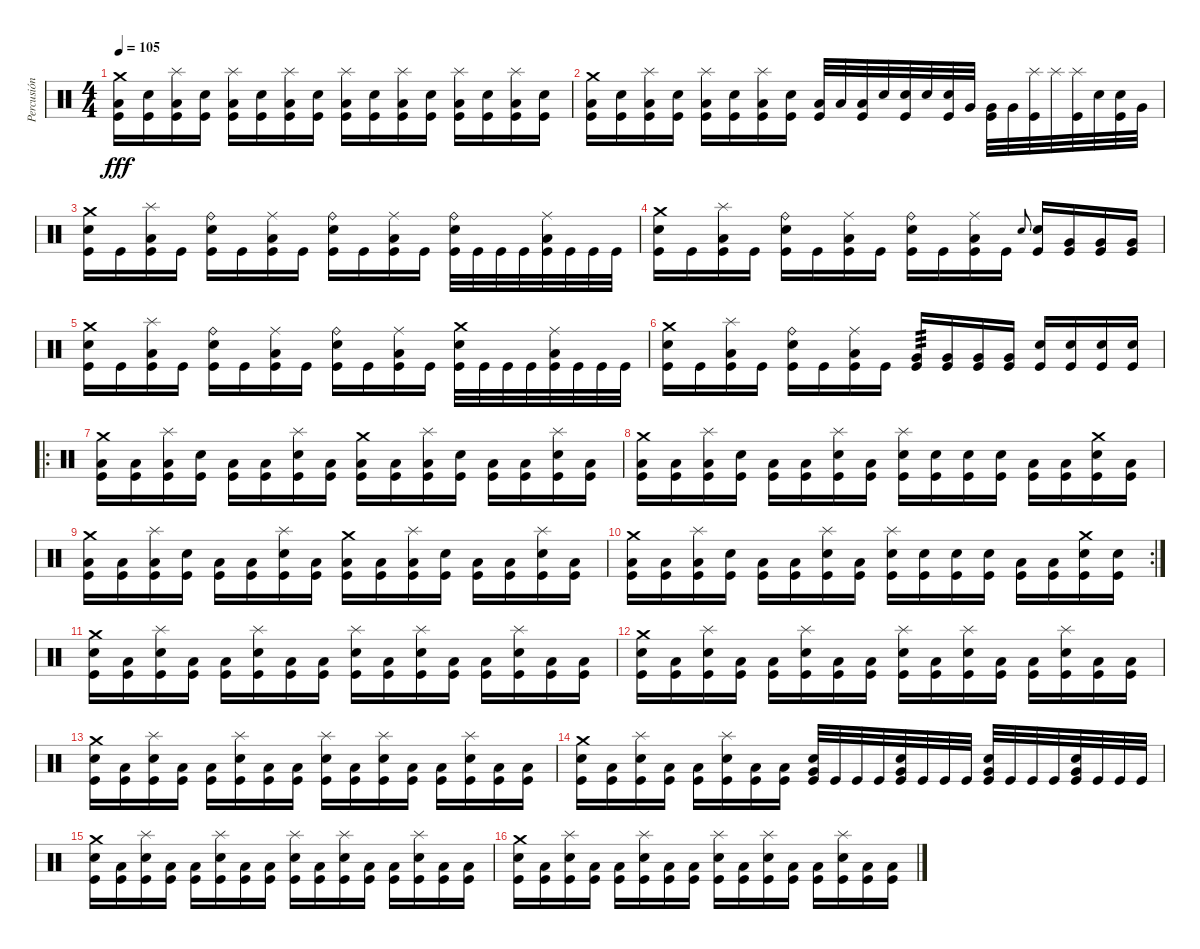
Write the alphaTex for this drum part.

\track ("Percusión" "Percusión") {instrument percussion}
\staff {score}
\articulation defaults
\ts (4 4)
\tempo 105
\clef neutral
\ks c
("Crash medium (hit)" "Low Floor Tom (hit)" "Kick (hit)").16{dy fff} ("Snare (hit) 2" "Kick (hit)").16 ("Splash (hit)" "Low Floor Tom (hit)" "Kick (hit)").16 ("Snare (hit) 2" "Kick (hit)").16 ("Splash (hit)" "Low Floor Tom (hit)" "Kick (hit)").16 ("Snare (hit) 2" "Kick (hit)").16 ("Splash (hit)" "Low Floor Tom (hit)" "Kick (hit)").16 ("Snare (hit) 2" "Kick (hit)").16 ("Splash (hit)" "Low Floor Tom (hit)" "Kick (hit)").16 ("Snare (hit) 2" "Kick (hit)").16 ("Splash (hit)" "Low Floor Tom (hit)" "Kick (hit)").16 ("Snare (hit) 2" "Kick (hit)").16 ("Splash (hit)" "Low Floor Tom (hit)" "Kick (hit)").16 ("Snare (hit) 2" "Kick (hit)").16 ("Splash (hit)" "Low Floor Tom (hit)" "Kick (hit)").16 ("Snare (hit) 2" "Kick (hit)").16 |
("Crash medium (hit)" "Low Floor Tom (hit)" "Kick (hit)").16 ("Snare (hit) 2" "Kick (hit)").16 ("Splash (hit)" "Low Floor Tom (hit)" "Kick (hit)").16 ("Snare (hit) 2" "Kick (hit)").16 ("Splash (hit)" "Low Floor Tom (hit)" "Kick (hit)").16 ("Snare (hit) 2" "Kick (hit)").16 ("Splash (hit)" "Low Floor Tom (hit)" "Kick (hit)").16 ("Snare (hit) 2" "Kick (hit)").16 ("Low Floor Tom (hit)" "Kick (hit)").32 "Low Floor Tom (hit)".32 ("Low Floor Tom (hit)" "Kick (hit)").32 "Snare (hit) 2".32 ("Snare (hit) 2" "Kick (hit)").32 "Snare (hit) 2".32 ("Snare (hit) 2" "Kick (hit)").32 "Very Low Tom (hit)".32 ("Very Low Tom (hit)" "Kick (hit)").32 "Very Low Tom (hit)".32 ("Splash (hit)" "Kick (hit)").32 "Splash (hit)".32 ("Splash (hit)" "Kick (hit)").32 "Snare (hit) 2".32 ("Snare (hit) 2" "Kick (hit)").32 "Very Low Tom (hit)".32 |
("Crash medium (hit)" "Snare (hit) 2" "Kick (hit)").16 "Kick (hit)".16 ("Splash (hit)" "Low Floor Tom (hit)" "Kick (hit)").16 "Kick (hit)".16 ("Ride (bell)" "Snare (hit) 2" "Kick (hit)").16 "Kick (hit)".16 ("Ride (middle)" "Low Floor Tom (hit)" "Kick (hit)").16 "Kick (hit)".16 ("Ride (bell)" "Snare (hit) 2" "Kick (hit)").16 "Kick (hit)".16 ("Ride (middle)" "Low Floor Tom (hit)" "Kick (hit)").16 "Kick (hit)".16 ("Ride (bell)" "Snare (hit) 2" "Kick (hit)").32 "Kick (hit)".32 "Kick (hit)".32 "Kick (hit)".32 ("Ride (middle)" "Low Floor Tom (hit)" "Kick (hit)").32 "Kick (hit)".32 "Kick (hit)".32 "Kick (hit)".32 |
("Crash medium (hit)" "Snare (hit) 2" "Kick (hit)").16 "Kick (hit)".16 ("Splash (hit)" "Low Floor Tom (hit)" "Kick (hit)").16 "Kick (hit)".16 ("Ride (bell)" "Snare (hit) 2" "Kick (hit)").16 "Kick (hit)".16 ("Ride (middle)" "Low Floor Tom (hit)" "Kick (hit)").16 "Kick (hit)".16 ("Ride (bell)" "Snare (hit) 2" "Kick (hit)").16 "Kick (hit)".16 ("Ride (middle)" "Low Floor Tom (hit)" "Kick (hit)").16 "Kick (hit)".16 "Snare (hit) 2".8{gr onbeat} ("Snare (hit) 2" "Kick (hit)").16 ("Very Low Tom (hit)" "Kick (hit)").16 ("Very Low Tom (hit)" "Kick (hit)").16 ("Very Low Tom (hit)" "Kick (hit)").16 |
("Crash medium (hit)" "Snare (hit) 2" "Kick (hit)").16 "Kick (hit)".16 ("Splash (hit)" "Low Floor Tom (hit)" "Kick (hit)").16 "Kick (hit)".16 ("Ride (bell)" "Snare (hit) 2" "Kick (hit)").16 "Kick (hit)".16 ("Ride (middle)" "Low Floor Tom (hit)" "Kick (hit)").16 "Kick (hit)".16 ("Ride (bell)" "Snare (hit) 2" "Kick (hit)").16 "Kick (hit)".16 ("Ride (middle)" "Low Floor Tom (hit)" "Kick (hit)").16 "Kick (hit)".16 ("Crash medium (hit)" "Snare (hit) 2" "Kick (hit)").32 "Kick (hit)".32 "Kick (hit)".32 "Kick (hit)".32 ("Ride (middle)" "Low Floor Tom (hit)" "Kick (hit)").32 "Kick (hit)".32 "Kick (hit)".32 "Kick (hit)".32 |
("Crash medium (hit)" "Snare (hit) 2" "Kick (hit)").16 "Kick (hit)".16 ("Splash (hit)" "Low Floor Tom (hit)" "Kick (hit)").16 "Kick (hit)".16 ("Ride (bell)" "Snare (hit) 2" "Kick (hit)").16 "Kick (hit)".16 ("Ride (middle)" "Low Floor Tom (hit)" "Kick (hit)").16 "Kick (hit)".16 ("Very Low Tom (hit)" "Kick (hit)").16{tp 3} ("Very Low Tom (hit)" "Kick (hit)").16 ("Very Low Tom (hit)" "Kick (hit)").16 ("Very Low Tom (hit)" "Kick (hit)").16 ("Snare (hit) 2" "Kick (hit)").16 ("Snare (hit) 2" "Kick (hit)").16 ("Snare (hit) 2" "Kick (hit)").16 ("Snare (hit) 2" "Kick (hit)").16 |
\ro
("Crash medium (hit)" "Low Floor Tom (hit)" "Kick (hit)").16 ("Low Floor Tom (hit)" "Kick (hit)").16 ("Splash (hit)" "Low Floor Tom (hit)" "Kick (hit)").16 ("Snare (hit) 2" "Kick (hit)").16 ("Low Floor Tom (hit)" "Kick (hit)").16 ("Low Floor Tom (hit)" "Kick (hit)").16 ("Splash (hit)" "Snare (hit) 2" "Kick (hit)").16 ("Low Floor Tom (hit)" "Kick (hit)").16 ("Crash medium (hit)" "Low Floor Tom (hit)" "Kick (hit)").16 ("Low Floor Tom (hit)" "Kick (hit)").16 ("Splash (hit)" "Low Floor Tom (hit)" "Kick (hit)").16 ("Snare (hit) 2" "Kick (hit)").16 ("Low Floor Tom (hit)" "Kick (hit)").16 ("Low Floor Tom (hit)" "Kick (hit)").16 ("Splash (hit)" "Snare (hit) 2" "Kick (hit)").16 ("Low Floor Tom (hit)" "Kick (hit)").16 |
("Crash medium (hit)" "Low Floor Tom (hit)" "Kick (hit)").16 ("Low Floor Tom (hit)" "Kick (hit)").16 ("Splash (hit)" "Low Floor Tom (hit)" "Kick (hit)").16 ("Snare (hit) 2" "Kick (hit)").16 ("Low Floor Tom (hit)" "Kick (hit)").16 ("Low Floor Tom (hit)" "Kick (hit)").16 ("Splash (hit)" "Snare (hit) 2" "Kick (hit)").16 ("Low Floor Tom (hit)" "Kick (hit)").16 ("Splash (hit)" "Snare (hit) 2" "Kick (hit)").16 ("Snare (hit) 2" "Kick (hit)").16 ("Snare (hit) 2" "Kick (hit)").16 ("Snare (hit) 2" "Kick (hit)").16 ("Low Floor Tom (hit)" "Kick (hit)").16 ("Low Floor Tom (hit)" "Kick (hit)").16 ("Crash medium (hit)" "Snare (hit) 2" "Kick (hit)").16 ("Low Floor Tom (hit)" "Kick (hit)").16 |
("Crash medium (hit)" "Low Floor Tom (hit)" "Kick (hit)").16 ("Low Floor Tom (hit)" "Kick (hit)").16 ("Splash (hit)" "Low Floor Tom (hit)" "Kick (hit)").16 ("Snare (hit) 2" "Kick (hit)").16 ("Low Floor Tom (hit)" "Kick (hit)").16 ("Low Floor Tom (hit)" "Kick (hit)").16 ("Splash (hit)" "Snare (hit) 2" "Kick (hit)").16 ("Low Floor Tom (hit)" "Kick (hit)").16 ("Crash medium (hit)" "Low Floor Tom (hit)" "Kick (hit)").16 ("Low Floor Tom (hit)" "Kick (hit)").16 ("Splash (hit)" "Low Floor Tom (hit)" "Kick (hit)").16 ("Snare (hit) 2" "Kick (hit)").16 ("Low Floor Tom (hit)" "Kick (hit)").16 ("Low Floor Tom (hit)" "Kick (hit)").16 ("Splash (hit)" "Snare (hit) 2" "Kick (hit)").16 ("Low Floor Tom (hit)" "Kick (hit)").16 |
\rc 2
("Crash medium (hit)" "Low Floor Tom (hit)" "Kick (hit)").16 ("Low Floor Tom (hit)" "Kick (hit)").16 ("Splash (hit)" "Low Floor Tom (hit)" "Kick (hit)").16 ("Snare (hit) 2" "Kick (hit)").16 ("Low Floor Tom (hit)" "Kick (hit)").16 ("Low Floor Tom (hit)" "Kick (hit)").16 ("Splash (hit)" "Snare (hit) 2" "Kick (hit)").16 ("Low Floor Tom (hit)" "Kick (hit)").16 ("Splash (hit)" "Snare (hit) 2" "Kick (hit)").16 ("Snare (hit) 2" "Kick (hit)").16 ("Snare (hit) 2" "Kick (hit)").16 ("Snare (hit) 2" "Kick (hit)").16 ("Low Floor Tom (hit)" "Kick (hit)").16 ("Low Floor Tom (hit)" "Kick (hit)").16 ("Crash medium (hit)" "Snare (hit) 2" "Kick (hit)").16 ("Snare (hit) 2" "Kick (hit)").16 |
("Crash medium (hit)" "Snare (hit) 2" "Kick (hit)").16 ("Low Floor Tom (hit)" "Kick (hit)").16 ("Splash (hit)" "Snare (hit) 2" "Kick (hit)").16 ("Low Floor Tom (hit)" "Kick (hit)").16 ("Low Floor Tom (hit)" "Kick (hit)").16 ("Splash (hit)" "Snare (hit) 2" "Kick (hit)").16 ("Low Floor Tom (hit)" "Kick (hit)").16 ("Low Floor Tom (hit)" "Kick (hit)").16 ("Splash (hit)" "Snare (hit) 2" "Kick (hit)").16 ("Low Floor Tom (hit)" "Kick (hit)").16 ("Splash (hit)" "Snare (hit) 2" "Kick (hit)").16 ("Low Floor Tom (hit)" "Kick (hit)").16 ("Low Floor Tom (hit)" "Kick (hit)").16 ("Splash (hit)" "Snare (hit) 2" "Kick (hit)").16 ("Low Floor Tom (hit)" "Kick (hit)").16 ("Low Floor Tom (hit)" "Kick (hit)").16 |
("Crash medium (hit)" "Snare (hit) 2" "Kick (hit)").16 ("Low Floor Tom (hit)" "Kick (hit)").16 ("Splash (hit)" "Snare (hit) 2" "Kick (hit)").16 ("Low Floor Tom (hit)" "Kick (hit)").16 ("Low Floor Tom (hit)" "Kick (hit)").16 ("Splash (hit)" "Snare (hit) 2" "Kick (hit)").16 ("Low Floor Tom (hit)" "Kick (hit)").16 ("Low Floor Tom (hit)" "Kick (hit)").16 ("Splash (hit)" "Snare (hit) 2" "Kick (hit)").16 ("Low Floor Tom (hit)" "Kick (hit)").16 ("Splash (hit)" "Snare (hit) 2" "Kick (hit)").16 ("Low Floor Tom (hit)" "Kick (hit)").16 ("Low Floor Tom (hit)" "Kick (hit)").16 ("Splash (hit)" "Snare (hit) 2" "Kick (hit)").16 ("Low Floor Tom (hit)" "Kick (hit)").16 ("Low Floor Tom (hit)" "Kick (hit)").16 |
("Crash medium (hit)" "Snare (hit) 2" "Kick (hit)").16 ("Low Floor Tom (hit)" "Kick (hit)").16 ("Splash (hit)" "Snare (hit) 2" "Kick (hit)").16 ("Low Floor Tom (hit)" "Kick (hit)").16 ("Low Floor Tom (hit)" "Kick (hit)").16 ("Splash (hit)" "Snare (hit) 2" "Kick (hit)").16 ("Low Floor Tom (hit)" "Kick (hit)").16 ("Low Floor Tom (hit)" "Kick (hit)").16 ("Splash (hit)" "Snare (hit) 2" "Kick (hit)").16 ("Low Floor Tom (hit)" "Kick (hit)").16 ("Splash (hit)" "Snare (hit) 2" "Kick (hit)").16 ("Low Floor Tom (hit)" "Kick (hit)").16 ("Low Floor Tom (hit)" "Kick (hit)").16 ("Splash (hit)" "Snare (hit) 2" "Kick (hit)").16 ("Low Floor Tom (hit)" "Kick (hit)").16 ("Low Floor Tom (hit)" "Kick (hit)").16 |
("Crash medium (hit)" "Snare (hit) 2" "Kick (hit)").16 ("Low Floor Tom (hit)" "Kick (hit)").16 ("Splash (hit)" "Snare (hit) 2" "Kick (hit)").16 ("Low Floor Tom (hit)" "Kick (hit)").16 ("Low Floor Tom (hit)" "Kick (hit)").16 ("Splash (hit)" "Snare (hit) 2" "Kick (hit)").16 ("Low Floor Tom (hit)" "Kick (hit)").16 ("Low Floor Tom (hit)" "Kick (hit)").16 ("Snare (hit) 2" "Very Low Tom (hit)" "Kick (hit)").32 "Kick (hit)".32 "Kick (hit)".32 "Kick (hit)".32 ("Snare (hit) 2" "Very Low Tom (hit)" "Kick (hit)").32 "Kick (hit)".32 "Kick (hit)".32 "Kick (hit)".32 ("Snare (hit) 2" "Very Low Tom (hit)" "Kick (hit)").32 "Kick (hit)".32 "Kick (hit)".32 "Kick (hit)".32 ("Snare (hit) 2" "Very Low Tom (hit)" "Kick (hit)").32 "Kick (hit)".32 "Kick (hit)".32 "Kick (hit)".32 |
("Crash medium (hit)" "Snare (hit) 2" "Kick (hit)").16 ("Low Floor Tom (hit)" "Kick (hit)").16 ("Splash (hit)" "Snare (hit) 2" "Kick (hit)").16 ("Low Floor Tom (hit)" "Kick (hit)").16 ("Low Floor Tom (hit)" "Kick (hit)").16 ("Splash (hit)" "Snare (hit) 2" "Kick (hit)").16 ("Low Floor Tom (hit)" "Kick (hit)").16 ("Low Floor Tom (hit)" "Kick (hit)").16 ("Splash (hit)" "Snare (hit) 2" "Kick (hit)").16 ("Low Floor Tom (hit)" "Kick (hit)").16 ("Splash (hit)" "Snare (hit) 2" "Kick (hit)").16 ("Low Floor Tom (hit)" "Kick (hit)").16 ("Low Floor Tom (hit)" "Kick (hit)").16 ("Splash (hit)" "Snare (hit) 2" "Kick (hit)").16 ("Low Floor Tom (hit)" "Kick (hit)").16 ("Low Floor Tom (hit)" "Kick (hit)").16 |
("Crash medium (hit)" "Snare (hit) 2" "Kick (hit)").16 ("Low Floor Tom (hit)" "Kick (hit)").16 ("Splash (hit)" "Snare (hit) 2" "Kick (hit)").16 ("Low Floor Tom (hit)" "Kick (hit)").16 ("Low Floor Tom (hit)" "Kick (hit)").16 ("Splash (hit)" "Snare (hit) 2" "Kick (hit)").16 ("Low Floor Tom (hit)" "Kick (hit)").16 ("Low Floor Tom (hit)" "Kick (hit)").16 ("Splash (hit)" "Snare (hit) 2" "Kick (hit)").16 ("Low Floor Tom (hit)" "Kick (hit)").16 ("Splash (hit)" "Snare (hit) 2" "Kick (hit)").16 ("Low Floor Tom (hit)" "Kick (hit)").16 ("Low Floor Tom (hit)" "Kick (hit)").16 ("Splash (hit)" "Snare (hit) 2" "Kick (hit)").16 ("Low Floor Tom (hit)" "Kick (hit)").16 ("Low Floor Tom (hit)" "Kick (hit)").16
